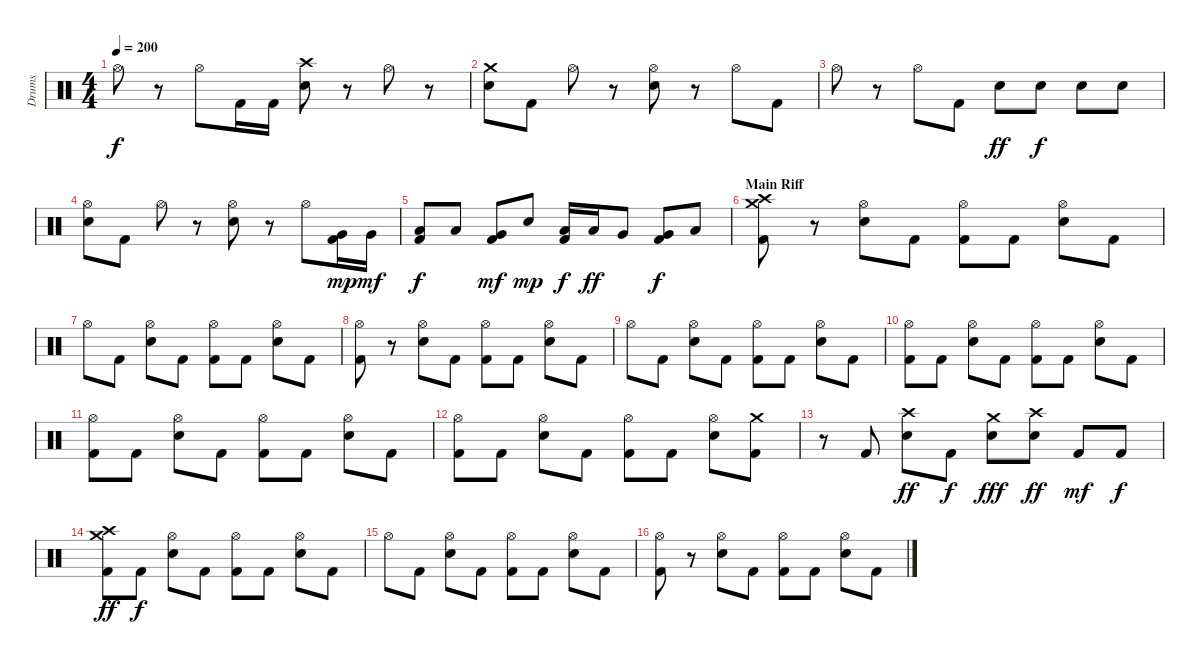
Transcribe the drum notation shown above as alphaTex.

\track ("Drums" "Drums") {instrument percussion}
\staff {score}
\articulation defaults
\ts (4 4)
\tempo 200
\clef neutral
\ks c "Hi-Hat (open)".8{dy f}
r.8 "Hi-Hat (open)".8 "Kick (hit) 2".16 "Kick (hit) 2".16 ("Electric Snare (hit)" "Crash high (hit)").8 r.8 "Hi-Hat (open)".8 r.8 |
("Electric Snare (hit)" "Crash medium (hit)").8 "Kick (hit) 2".8 "Hi-Hat (open)".8 r.8 ("Electric Snare (hit)" "Hi-Hat (open)").8 r.8 "Hi-Hat (open)".8 "Kick (hit) 2".8 |
"Hi-Hat (open)".8 r.8 "Hi-Hat (open)".8 "Kick (hit) 2".8 "Electric Snare (hit)".8{dy ff} "Electric Snare (hit)".8{dy f} "Electric Snare (hit)".8 "Electric Snare (hit)".8 |
("Electric Snare (hit)" "Hi-Hat (open)").8 "Kick (hit) 2".8 "Hi-Hat (open)".8 r.8 ("Electric Snare (hit)" "Hi-Hat (open)").8 r.8 "Hi-Hat (open)".8 ("Kick (hit) 2" "Very Low Tom (hit)").16{dy mp} "Very Low Tom (hit)".16{dy mf} |
("Kick (hit) 2" "Low Tom (hit)").8{dy f} "Low Tom (hit)".8 ("Kick (hit) 2" "Very Low Tom (hit)").8{dy mf} "Electric Snare (hit)".8{dy mp} ("Kick (hit) 2" "Low Tom (hit)").16{dy f} "Low Tom (hit)".16{dy ff} "Very Low Tom (hit)".8 ("Kick (hit) 2" "Very Low Tom (hit)").8{dy f} "Low Floor Tom (hit)".8 |
\section ("" "Main Riff")
("Kick (hit) 2" "Crash medium (hit)" "Crash high (hit)").8 r.8 ("Electric Snare (hit)" "Hi-Hat (open)").8 "Kick (hit) 2".8 ("Kick (hit) 2" "Hi-Hat (open)").8 "Kick (hit) 2".8 ("Electric Snare (hit)" "Hi-Hat (open)").8 "Kick (hit) 2".8 |
"Hi-Hat (open)".8 "Kick (hit) 2".8 ("Electric Snare (hit)" "Hi-Hat (open)").8 "Kick (hit) 2".8 ("Kick (hit) 2" "Hi-Hat (open)").8 "Kick (hit) 2".8 ("Electric Snare (hit)" "Hi-Hat (open)").8 "Kick (hit) 2".8 |
("Kick (hit) 2" "Hi-Hat (open)").8 r.8 ("Electric Snare (hit)" "Hi-Hat (open)").8 "Kick (hit) 2".8 ("Kick (hit) 2" "Hi-Hat (open)").8 "Kick (hit) 2".8 ("Electric Snare (hit)" "Hi-Hat (open)").8 "Kick (hit) 2".8 |
"Hi-Hat (open)".8 "Kick (hit) 2".8 ("Electric Snare (hit)" "Hi-Hat (open)").8 "Kick (hit) 2".8 ("Kick (hit) 2" "Hi-Hat (open)").8 "Kick (hit) 2".8 ("Electric Snare (hit)" "Hi-Hat (open)").8 "Kick (hit) 2".8 |
("Kick (hit) 2" "Hi-Hat (open)").8 "Kick (hit) 2".8 ("Electric Snare (hit)" "Hi-Hat (open)").8 "Kick (hit) 2".8 ("Kick (hit) 2" "Hi-Hat (open)").8 "Kick (hit) 2".8 ("Electric Snare (hit)" "Hi-Hat (open)").8 "Kick (hit) 2".8 |
("Kick (hit) 2" "Hi-Hat (open)").8 "Kick (hit) 2".8 ("Electric Snare (hit)" "Hi-Hat (open)").8 "Kick (hit) 2".8 ("Kick (hit) 2" "Hi-Hat (open)").8 "Kick (hit) 2".8 ("Electric Snare (hit)" "Hi-Hat (open)").8 "Kick (hit) 2".8 |
("Kick (hit) 2" "Hi-Hat (open)").8 "Kick (hit) 2".8 ("Electric Snare (hit)" "Hi-Hat (open)").8 "Kick (hit) 2".8 ("Kick (hit) 2" "Hi-Hat (open)").8 "Kick (hit) 2".8 ("Electric Snare (hit)" "Hi-Hat (open)").8 ("Kick (hit) 2" "Crash medium (hit)").8 |
r.8 "Kick (hit) 2".8 ("Electric Snare (hit)" "Crash high (hit)").8{dy ff} "Kick (hit) 2".8{dy f} ("Electric Snare (hit)" "Crash medium (hit)").8{dy fff} ("Electric Snare (hit)" "Crash high (hit)").8{dy ff} "Kick (hit) 2".8{dy mf} "Kick (hit) 2".8{dy f} |
("Kick (hit) 2" "Crash medium (hit)" "Crash high (hit)").8{dy ff} "Kick (hit) 2".8{dy f} ("Electric Snare (hit)" "Hi-Hat (open)").8 "Kick (hit) 2".8 ("Kick (hit) 2" "Hi-Hat (open)").8 "Kick (hit) 2".8 ("Electric Snare (hit)" "Hi-Hat (open)").8 "Kick (hit) 2".8 |
"Hi-Hat (open)".8 "Kick (hit) 2".8 ("Electric Snare (hit)" "Hi-Hat (open)").8 "Kick (hit) 2".8 ("Kick (hit) 2" "Hi-Hat (open)").8 "Kick (hit) 2".8 ("Electric Snare (hit)" "Hi-Hat (open)").8 "Kick (hit) 2".8 |
("Kick (hit) 2" "Hi-Hat (open)").8 r.8 ("Electric Snare (hit)" "Hi-Hat (open)").8 "Kick (hit) 2".8 ("Kick (hit) 2" "Hi-Hat (open)").8 "Kick (hit) 2".8 ("Electric Snare (hit)" "Hi-Hat (open)").8 "Kick (hit) 2".8
